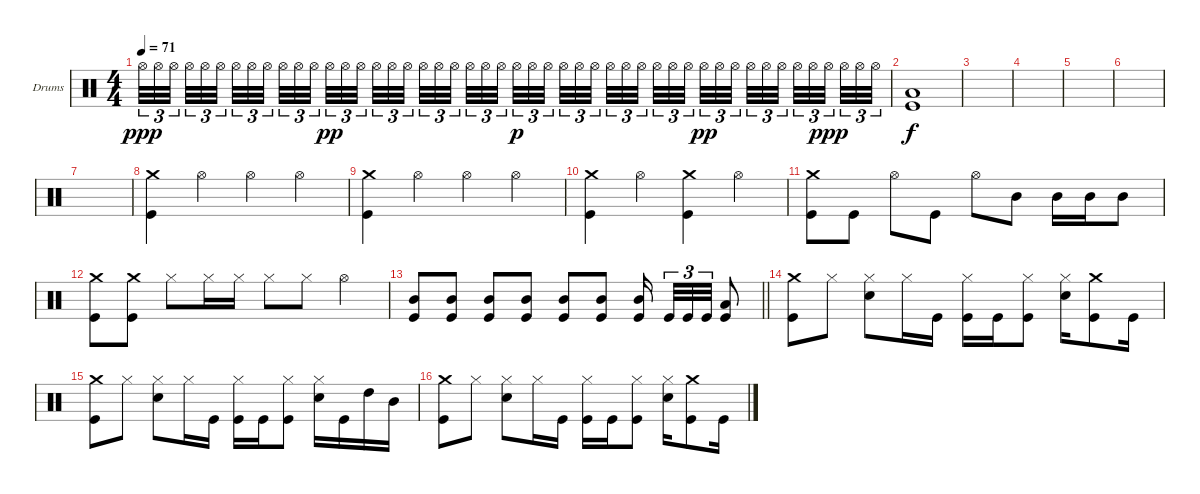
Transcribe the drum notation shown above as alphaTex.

\defaultSystemsLayout 4
\bracketExtendMode groupsimilarinstruments
\firstSystemTrackNameOrientation horizontal
\otherSystemsTrackNameOrientation horizontal
\track ("Drumkit" "Drums") {instrument percussion}
\staff {score}
\articulation defaults
\ts (4 4)
\tempo 71
\clef neutral
\ks c "Hi-Hat (open)".32{tu (3 2) dy ppp} "Hi-Hat (open)".32{tu (3 2)} "Hi-Hat (open)".32{tu (3 2)} "Hi-Hat (open)".32{tu (3 2)} "Hi-Hat (open)".32{tu (3 2)} "Hi-Hat (open)".32{tu (3 2)} "Hi-Hat (open)".32{tu (3 2)} "Hi-Hat (open)".32{tu (3 2)} "Hi-Hat (open)".32{tu (3 2)} "Hi-Hat (open)".32{tu (3 2)} "Hi-Hat (open)".32{tu (3 2)} "Hi-Hat (open)".32{tu (3 2)} "Hi-Hat (open)".32{tu (3 2) dy pp} "Hi-Hat (open)".32{tu (3 2)} "Hi-Hat (open)".32{tu (3 2)} "Hi-Hat (open)".32{tu (3 2)} "Hi-Hat (open)".32{tu (3 2)} "Hi-Hat (open)".32{tu (3 2)} "Hi-Hat (open)".32{tu (3 2)} "Hi-Hat (open)".32{tu (3 2)} "Hi-Hat (open)".32{tu (3 2)} "Hi-Hat (open)".32{tu (3 2)} "Hi-Hat (open)".32{tu (3 2)} "Hi-Hat (open)".32{tu (3 2)} "Hi-Hat (open)".32{tu (3 2) dy p} "Hi-Hat (open)".32{tu (3 2)} "Hi-Hat (open)".32{tu (3 2)} "Hi-Hat (open)".32{tu (3 2)} "Hi-Hat (open)".32{tu (3 2)} "Hi-Hat (open)".32{tu (3 2)} "Hi-Hat (open)".32{tu (3 2)} "Hi-Hat (open)".32{tu (3 2)} "Hi-Hat (open)".32{tu (3 2)} "Hi-Hat (open)".32{tu (3 2)} "Hi-Hat (open)".32{tu (3 2)} "Hi-Hat (open)".32{tu (3 2)} "Hi-Hat (open)".32{tu (3 2) dy pp} "Hi-Hat (open)".32{tu (3 2)} "Hi-Hat (open)".32{tu (3 2)} "Hi-Hat (open)".32{tu (3 2)} "Hi-Hat (open)".32{tu (3 2)} "Hi-Hat (open)".32{tu (3 2)} "Hi-Hat (open)".32{tu (3 2)} "Hi-Hat (open)".32{tu (3 2)} "Hi-Hat (open)".32{tu (3 2) dy ppp} "Hi-Hat (open)".32{tu (3 2)} "Hi-Hat (open)".32{tu (3 2)} "Hi-Hat (open)".32{tu (3 2)}
|
("Kick (hit)" "Low Tom (hit)").1{dy f} |
|
|
|
|
|
("Crash medium (hit)" "Kick (hit)").4 "Hi-Hat (open)".4 "Hi-Hat (open)".4 "Hi-Hat (open)".4 |
("Crash medium (hit)" "Kick (hit)").4 "Hi-Hat (open)".4 "Hi-Hat (open)".4 "Hi-Hat (open)".4 |
("Crash medium (hit)" "Kick (hit)").4 "Hi-Hat (open)".4 ("Crash medium (hit)" "Kick (hit)").4 "Hi-Hat (open)".4 |
("Kick (hit)" "Crash medium (hit)").8 "Kick (hit)".8 "Hi-Hat (open)".8 "Kick (hit)".8 "Hi-Hat (open)".8 "Mid Tom (hit)".8 "Mid Tom (hit)".16 "Mid Tom (hit)".16 "Mid Tom (hit)".8 |
("Crash medium (hit)" "Kick (hit)").8 ("Crash medium (hit)" "Kick (hit)").8 "Hi-Hat (closed)".8 "Hi-Hat (closed)".16 "Hi-Hat (closed)".16 "Hi-Hat (closed)".8 "Hi-Hat (closed)".8 "Hi-Hat (open)".4 |
\barLineRight lightlight
("Mid Tom (hit)" "Kick (hit)").8 ("Mid Tom (hit)" "Kick (hit)").8 ("Kick (hit)" "Mid Tom (hit)").8 ("Kick (hit)" "Mid Tom (hit)").8 ("Mid Tom (hit)" "Kick (hit)").8 ("Mid Tom (hit)" "Kick (hit)").8 ("Kick (hit)" "Mid Tom (hit)").16 "Kick (hit)".32{tu (3 2)} "Kick (hit)".32{tu (3 2)} "Kick (hit)".32{tu (3 2)} ("Kick (hit)" "Low Tom (hit)").8 |
("Crash medium (hit)" "Kick (hit)").8 "Hi-Hat (closed)".8 ("Hi-Hat (closed)" "Snare (hit) 2").8 "Hi-Hat (closed)".16 "Kick (hit)".16 ("Kick (hit)" "Hi-Hat (closed)").16 "Kick (hit)".16 ("Hi-Hat (closed)" "Kick (hit)").8 ("Snare (hit) 2" "Hi-Hat (closed)").16 ("Kick (hit)" "Crash medium (hit)").8 "Kick (hit)".16 |
("Crash medium (hit)" "Kick (hit)").8 "Hi-Hat (closed)".8 ("Hi-Hat (closed)" "Snare (hit) 2").8 "Hi-Hat (closed)".16 "Kick (hit)".16 ("Kick (hit)" "Hi-Hat (closed)").16 "Kick (hit)".16 ("Hi-Hat (closed)" "Kick (hit)").8 ("Snare (hit) 2" "Hi-Hat (closed)").16 "Kick (hit)".16 "High Tom (hit)".16 "Mid Tom (hit)".16 |
("Crash medium (hit)" "Kick (hit)").8 "Hi-Hat (closed)".8 ("Hi-Hat (closed)" "Snare (hit) 2").8 "Hi-Hat (closed)".16 "Kick (hit)".16 ("Kick (hit)" "Hi-Hat (closed)").16 "Kick (hit)".16 ("Hi-Hat (closed)" "Kick (hit)").8 ("Snare (hit) 2" "Hi-Hat (closed)").16 ("Kick (hit)" "Crash medium (hit)").8 "Kick (hit)".16
